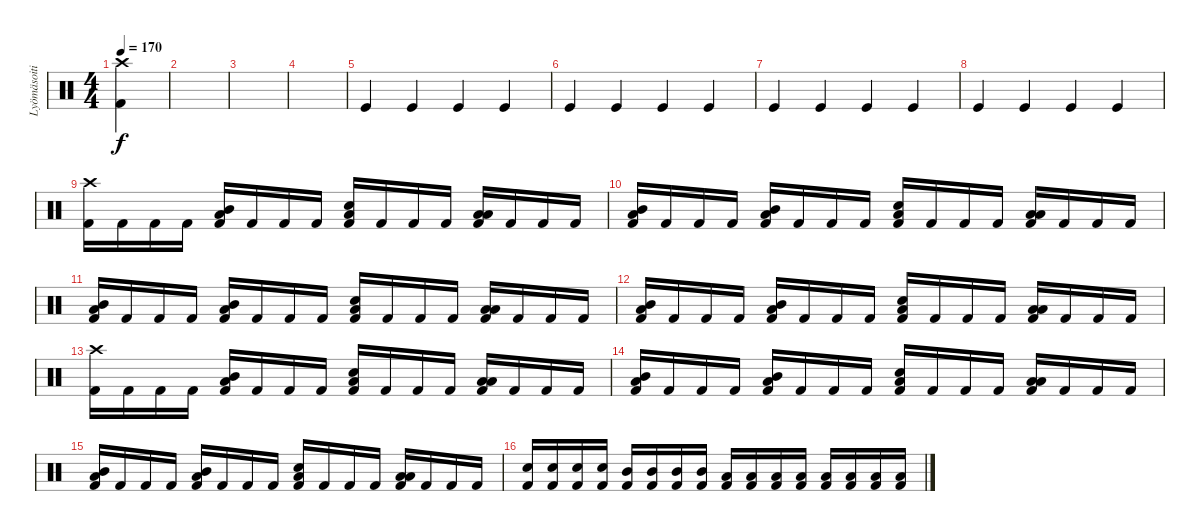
\track ("Lyömäsoitin" "Lyömäsoiti") {instrument percussion}
\staff {score}
\articulation defaults
\ts (4 4)
\tempo 170
\clef neutral
\ks c
("Kick (hit) 2" "Crash high (hit)").4{dy f} |
|
|
|
"Kick (hit)".4 "Kick (hit)".4 "Kick (hit)".4 "Kick (hit)".4 |
"Kick (hit)".4 "Kick (hit)".4 "Kick (hit)".4 "Kick (hit)".4 |
"Kick (hit)".4 "Kick (hit)".4 "Kick (hit)".4 "Kick (hit)".4 |
"Kick (hit)".4 "Kick (hit)".4 "Kick (hit)".4 "Kick (hit)".4 |
("Kick (hit) 2" "Crash high (hit)").16 "Kick (hit) 2".16 "Kick (hit) 2".16 "Kick (hit) 2".16 ("Kick (hit) 2" "Mid Tom (hit)" "Low Tom (hit)").16 "Kick (hit) 2".16 "Kick (hit) 2".16 "Kick (hit) 2".16 ("Kick (hit) 2" "Electric Snare (hit)" "Low Tom (hit)").16 "Kick (hit) 2".16 "Kick (hit) 2".16 "Kick (hit) 2".16 ("Kick (hit) 2" "Low Floor Tom (hit)" "Low Tom (hit)").16 "Kick (hit) 2".16 "Kick (hit) 2".16 "Kick (hit) 2".16 |
("Kick (hit) 2" "Mid Tom (hit)" "Low Tom (hit)").16 "Kick (hit) 2".16 "Kick (hit) 2".16 "Kick (hit) 2".16 ("Kick (hit) 2" "Mid Tom (hit)" "Low Tom (hit)").16 "Kick (hit) 2".16 "Kick (hit) 2".16 "Kick (hit) 2".16 ("Kick (hit) 2" "Electric Snare (hit)" "Low Tom (hit)").16 "Kick (hit) 2".16 "Kick (hit) 2".16 "Kick (hit) 2".16 ("Kick (hit) 2" "Low Floor Tom (hit)" "Low Tom (hit)").16 "Kick (hit) 2".16 "Kick (hit) 2".16 "Kick (hit) 2".16 |
("Kick (hit) 2" "Mid Tom (hit)" "Low Tom (hit)").16 "Kick (hit) 2".16 "Kick (hit) 2".16 "Kick (hit) 2".16 ("Kick (hit) 2" "Mid Tom (hit)" "Low Tom (hit)").16 "Kick (hit) 2".16 "Kick (hit) 2".16 "Kick (hit) 2".16 ("Kick (hit) 2" "Electric Snare (hit)" "Low Tom (hit)").16 "Kick (hit) 2".16 "Kick (hit) 2".16 "Kick (hit) 2".16 ("Kick (hit) 2" "Low Floor Tom (hit)" "Low Tom (hit)").16 "Kick (hit) 2".16 "Kick (hit) 2".16 "Kick (hit) 2".16 |
("Kick (hit) 2" "Mid Tom (hit)" "Low Tom (hit)").16 "Kick (hit) 2".16 "Kick (hit) 2".16 "Kick (hit) 2".16 ("Kick (hit) 2" "Mid Tom (hit)" "Low Tom (hit)").16 "Kick (hit) 2".16 "Kick (hit) 2".16 "Kick (hit) 2".16 ("Kick (hit) 2" "Electric Snare (hit)" "Low Tom (hit)").16 "Kick (hit) 2".16 "Kick (hit) 2".16 "Kick (hit) 2".16 ("Kick (hit) 2" "Low Floor Tom (hit)" "Low Tom (hit)").16 "Kick (hit) 2".16 "Kick (hit) 2".16 "Kick (hit) 2".16 |
("Kick (hit) 2" "Crash high (hit)").16 "Kick (hit) 2".16 "Kick (hit) 2".16 "Kick (hit) 2".16 ("Kick (hit) 2" "Mid Tom (hit)" "Low Tom (hit)").16 "Kick (hit) 2".16 "Kick (hit) 2".16 "Kick (hit) 2".16 ("Kick (hit) 2" "Electric Snare (hit)" "Low Tom (hit)").16 "Kick (hit) 2".16 "Kick (hit) 2".16 "Kick (hit) 2".16 ("Kick (hit) 2" "Low Floor Tom (hit)" "Low Tom (hit)").16 "Kick (hit) 2".16 "Kick (hit) 2".16 "Kick (hit) 2".16 |
("Kick (hit) 2" "Mid Tom (hit)" "Low Tom (hit)").16 "Kick (hit) 2".16 "Kick (hit) 2".16 "Kick (hit) 2".16 ("Kick (hit) 2" "Mid Tom (hit)" "Low Tom (hit)").16 "Kick (hit) 2".16 "Kick (hit) 2".16 "Kick (hit) 2".16 ("Kick (hit) 2" "Electric Snare (hit)" "Low Tom (hit)").16 "Kick (hit) 2".16 "Kick (hit) 2".16 "Kick (hit) 2".16 ("Kick (hit) 2" "Low Floor Tom (hit)" "Low Tom (hit)").16 "Kick (hit) 2".16 "Kick (hit) 2".16 "Kick (hit) 2".16 |
("Kick (hit) 2" "Mid Tom (hit)" "Low Tom (hit)").16 "Kick (hit) 2".16 "Kick (hit) 2".16 "Kick (hit) 2".16 ("Kick (hit) 2" "Mid Tom (hit)" "Low Tom (hit)").16 "Kick (hit) 2".16 "Kick (hit) 2".16 "Kick (hit) 2".16 ("Kick (hit) 2" "Electric Snare (hit)" "Low Tom (hit)").16 "Kick (hit) 2".16 "Kick (hit) 2".16 "Kick (hit) 2".16 ("Kick (hit) 2" "Low Floor Tom (hit)" "Low Tom (hit)").16 "Kick (hit) 2".16 "Kick (hit) 2".16 "Kick (hit) 2".16 |
("Kick (hit) 2" "Electric Snare (hit)").16 ("Kick (hit) 2" "Electric Snare (hit)").16 ("Kick (hit) 2" "Electric Snare (hit)").16 ("Kick (hit) 2" "Electric Snare (hit)").16 ("Kick (hit) 2" "Mid Tom (hit)").16 ("Kick (hit) 2" "Mid Tom (hit)").16 ("Kick (hit) 2" "Mid Tom (hit)").16 ("Kick (hit) 2" "Mid Tom (hit)").16 ("Kick (hit) 2" "Low Tom (hit)").16 ("Kick (hit) 2" "Low Tom (hit)").16 ("Kick (hit) 2" "Low Tom (hit)").16 ("Kick (hit) 2" "Low Tom (hit)").16 ("Kick (hit) 2" "Low Floor Tom (hit)").16 ("Kick (hit) 2" "Low Floor Tom (hit)").16 ("Kick (hit) 2" "Low Floor Tom (hit)").16 ("Kick (hit) 2" "Low Floor Tom (hit)").16
